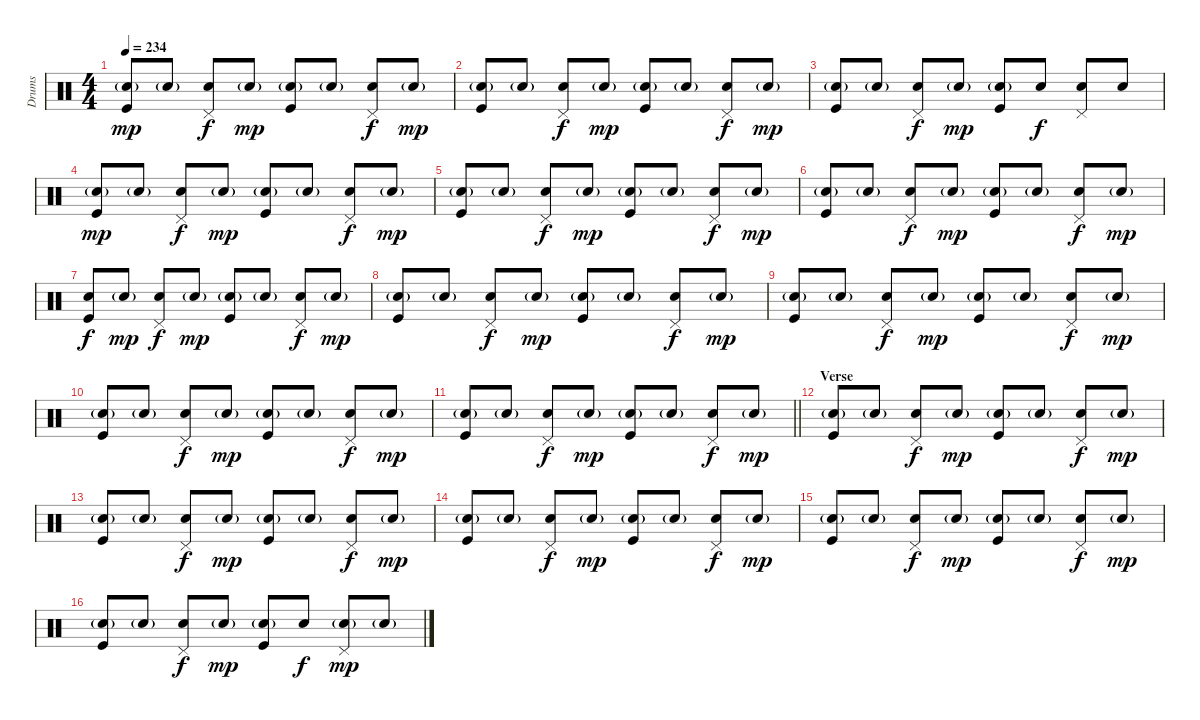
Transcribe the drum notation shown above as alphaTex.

\track ("Drums" "Drums") {instrument percussion}
\staff {score}
\articulation defaults
\ts (4 4)
\tempo 234
\clef neutral
\ks c
("Snare (hit) 2"{g} "Kick (hit)").8{dy mp} "Snare (hit) 2"{g}.8 ("Snare (hit) 2" "Pedal Hi-Hat (hit)").8{dy f} "Snare (hit) 2"{g}.8{dy mp} ("Snare (hit) 2"{g} "Kick (hit)").8 "Snare (hit) 2"{g}.8 ("Snare (hit) 2" "Pedal Hi-Hat (hit)").8{dy f} "Snare (hit) 2"{g}.8{dy mp} |
("Snare (hit) 2"{g} "Kick (hit)").8 "Snare (hit) 2"{g}.8 ("Snare (hit) 2" "Pedal Hi-Hat (hit)").8{dy f} "Snare (hit) 2"{g}.8{dy mp} ("Snare (hit) 2"{g} "Kick (hit)").8 "Snare (hit) 2"{g}.8 ("Snare (hit) 2" "Pedal Hi-Hat (hit)").8{dy f} "Snare (hit) 2"{g}.8{dy mp} |
("Snare (hit) 2"{g} "Kick (hit)").8 "Snare (hit) 2"{g}.8 ("Snare (hit) 2" "Pedal Hi-Hat (hit)").8{dy f} "Snare (hit) 2"{g}.8{dy mp} ("Snare (hit) 2"{g} "Kick (hit)").8 "Snare (hit) 2".8{dy f} ("Snare (hit) 2" "Pedal Hi-Hat (hit)").8 "Snare (hit) 2".8 |
("Snare (hit) 2"{g} "Kick (hit)").8{dy mp} "Snare (hit) 2"{g}.8 ("Snare (hit) 2" "Pedal Hi-Hat (hit)").8{dy f} "Snare (hit) 2"{g}.8{dy mp} ("Snare (hit) 2"{g} "Kick (hit)").8 "Snare (hit) 2"{g}.8 ("Snare (hit) 2" "Pedal Hi-Hat (hit)").8{dy f} "Snare (hit) 2"{g}.8{dy mp} |
("Snare (hit) 2"{g} "Kick (hit)").8 "Snare (hit) 2"{g}.8 ("Snare (hit) 2" "Pedal Hi-Hat (hit)").8{dy f} "Snare (hit) 2"{g}.8{dy mp} ("Snare (hit) 2"{g} "Kick (hit)").8 "Snare (hit) 2"{g}.8 ("Snare (hit) 2" "Pedal Hi-Hat (hit)").8{dy f} "Snare (hit) 2"{g}.8{dy mp} |
("Snare (hit) 2"{g} "Kick (hit)").8 "Snare (hit) 2"{g}.8 ("Snare (hit) 2" "Pedal Hi-Hat (hit)").8{dy f} "Snare (hit) 2"{g}.8{dy mp} ("Snare (hit) 2"{g} "Kick (hit)").8 "Snare (hit) 2"{g}.8 ("Snare (hit) 2" "Pedal Hi-Hat (hit)").8{dy f} "Snare (hit) 2"{g}.8{dy mp} |
("Snare (hit) 2" "Kick (hit)").8{dy f} "Snare (hit) 2"{g}.8{dy mp} ("Snare (hit) 2" "Pedal Hi-Hat (hit)").8{dy f} "Snare (hit) 2"{g}.8{dy mp} ("Snare (hit) 2"{g} "Kick (hit)").8 "Snare (hit) 2"{g}.8 ("Snare (hit) 2" "Pedal Hi-Hat (hit)").8{dy f} "Snare (hit) 2"{g}.8{dy mp} |
("Snare (hit) 2"{g} "Kick (hit)").8 "Snare (hit) 2"{g}.8 ("Snare (hit) 2" "Pedal Hi-Hat (hit)").8{dy f} "Snare (hit) 2"{g}.8{dy mp} ("Snare (hit) 2"{g} "Kick (hit)").8 "Snare (hit) 2"{g}.8 ("Snare (hit) 2" "Pedal Hi-Hat (hit)").8{dy f} "Snare (hit) 2"{g}.8{dy mp} |
("Snare (hit) 2"{g} "Kick (hit)").8 "Snare (hit) 2"{g}.8 ("Snare (hit) 2" "Pedal Hi-Hat (hit)").8{dy f} "Snare (hit) 2"{g}.8{dy mp} ("Snare (hit) 2"{g} "Kick (hit)").8 "Snare (hit) 2"{g}.8 ("Snare (hit) 2" "Pedal Hi-Hat (hit)").8{dy f} "Snare (hit) 2"{g}.8{dy mp} |
("Snare (hit) 2"{g} "Kick (hit)").8 "Snare (hit) 2"{g}.8 ("Snare (hit) 2" "Pedal Hi-Hat (hit)").8{dy f} "Snare (hit) 2"{g}.8{dy mp} ("Snare (hit) 2"{g} "Kick (hit)").8 "Snare (hit) 2"{g}.8 ("Snare (hit) 2" "Pedal Hi-Hat (hit)").8{dy f} "Snare (hit) 2"{g}.8{dy mp} |
\barLineRight lightlight
("Snare (hit) 2"{g} "Kick (hit)").8 "Snare (hit) 2"{g}.8 ("Snare (hit) 2" "Pedal Hi-Hat (hit)").8{dy f} "Snare (hit) 2"{g}.8{dy mp} ("Snare (hit) 2"{g} "Kick (hit)").8 "Snare (hit) 2"{g}.8 ("Snare (hit) 2" "Pedal Hi-Hat (hit)").8{dy f} "Snare (hit) 2"{g}.8{dy mp} |
\section ("" "Verse")
("Snare (hit) 2"{g} "Kick (hit)").8 "Snare (hit) 2"{g}.8 ("Snare (hit) 2" "Pedal Hi-Hat (hit)").8{dy f} "Snare (hit) 2"{g}.8{dy mp} ("Snare (hit) 2"{g} "Kick (hit)").8 "Snare (hit) 2"{g}.8 ("Snare (hit) 2" "Pedal Hi-Hat (hit)").8{dy f} "Snare (hit) 2"{g}.8{dy mp} |
("Snare (hit) 2"{g} "Kick (hit)").8 "Snare (hit) 2"{g}.8 ("Snare (hit) 2" "Pedal Hi-Hat (hit)").8{dy f} "Snare (hit) 2"{g}.8{dy mp} ("Snare (hit) 2"{g} "Kick (hit)").8 "Snare (hit) 2"{g}.8 ("Snare (hit) 2" "Pedal Hi-Hat (hit)").8{dy f} "Snare (hit) 2"{g}.8{dy mp} |
("Snare (hit) 2"{g} "Kick (hit)").8 "Snare (hit) 2"{g}.8 ("Snare (hit) 2" "Pedal Hi-Hat (hit)").8{dy f} "Snare (hit) 2"{g}.8{dy mp} ("Snare (hit) 2"{g} "Kick (hit)").8 "Snare (hit) 2"{g}.8 ("Snare (hit) 2" "Pedal Hi-Hat (hit)").8{dy f} "Snare (hit) 2"{g}.8{dy mp} |
("Snare (hit) 2"{g} "Kick (hit)").8 "Snare (hit) 2"{g}.8 ("Snare (hit) 2" "Pedal Hi-Hat (hit)").8{dy f} "Snare (hit) 2"{g}.8{dy mp} ("Snare (hit) 2"{g} "Kick (hit)").8 "Snare (hit) 2"{g}.8 ("Snare (hit) 2" "Pedal Hi-Hat (hit)").8{dy f} "Snare (hit) 2"{g}.8{dy mp} |
("Snare (hit) 2"{g} "Kick (hit)").8 "Snare (hit) 2"{g}.8 ("Snare (hit) 2" "Pedal Hi-Hat (hit)").8{dy f} "Snare (hit) 2"{g}.8{dy mp} ("Snare (hit) 2"{g} "Kick (hit)").8 "Snare (hit) 2".8{dy f} ("Snare (hit) 2"{g} "Pedal Hi-Hat (hit)").8{dy mp} "Snare (hit) 2"{g}.8
